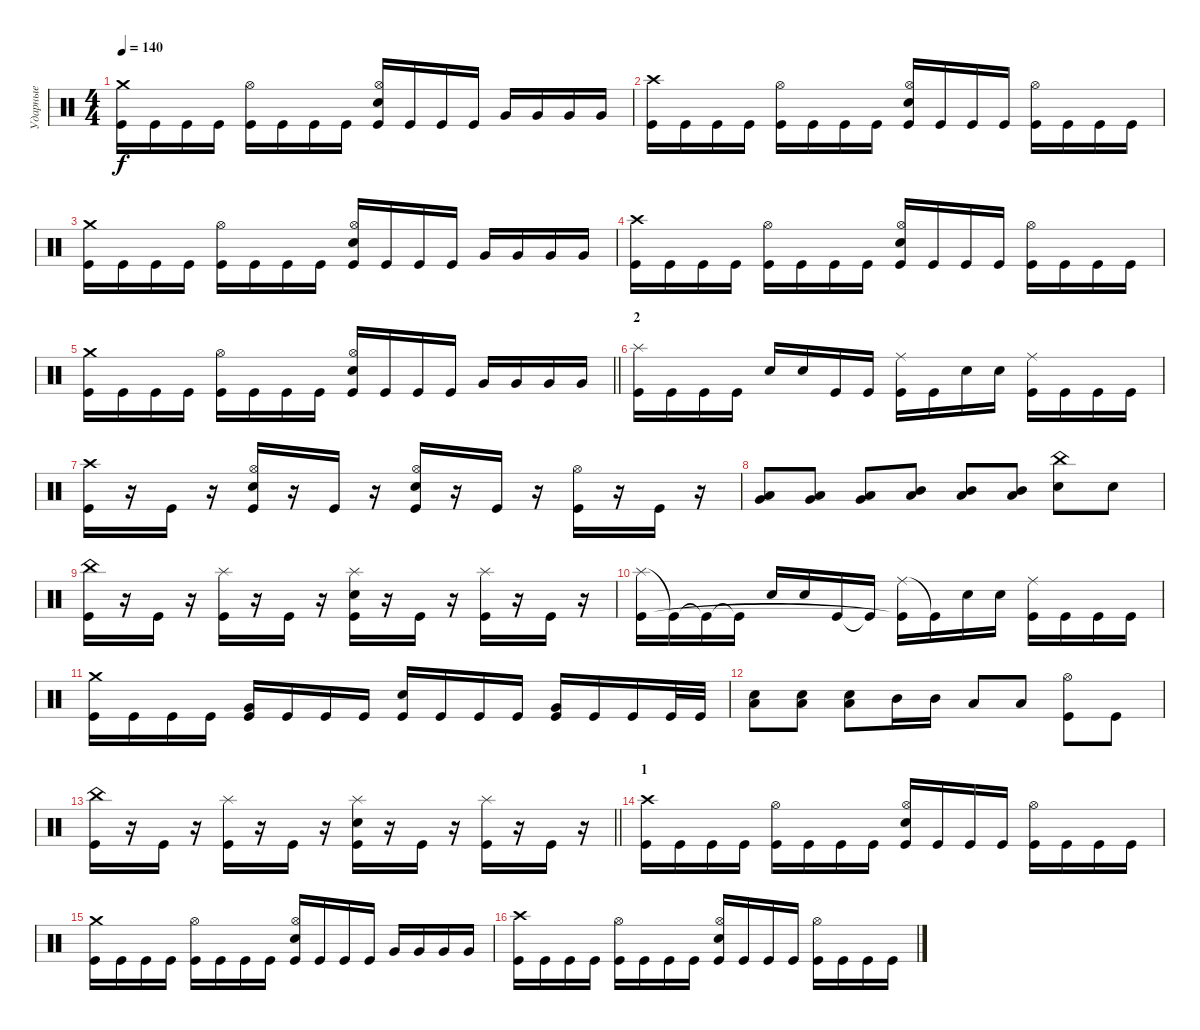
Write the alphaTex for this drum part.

\track ("Ударные" "Ударные") {instrument percussion}
\staff {score}
\articulation defaults
\ts (4 4)
\tempo 140
\clef neutral
\ks c
("Crash medium (hit)" "Kick (hit)").16{dy f} "Kick (hit)".16 "Kick (hit)".16 "Kick (hit)".16 ("Hi-Hat (open)" "Kick (hit)").16 "Kick (hit)".16 "Kick (hit)".16 "Kick (hit)".16 ("Hi-Hat (open)" "Electric Snare (hit)" "Kick (hit)").16 "Kick (hit)".16 "Kick (hit)".16 "Kick (hit)".16 "Very Low Tom (hit)".16 "Very Low Tom (hit)".16 "Very Low Tom (hit)".16 "Very Low Tom (hit)".16 |
("Crash high (hit)" "Kick (hit)").16 "Kick (hit)".16 "Kick (hit)".16 "Kick (hit)".16 ("Hi-Hat (open)" "Kick (hit)").16 "Kick (hit)".16 "Kick (hit)".16 "Kick (hit)".16 ("Hi-Hat (open)" "Electric Snare (hit)" "Kick (hit)").16 "Kick (hit)".16 "Kick (hit)".16 "Kick (hit)".16 ("Hi-Hat (open)" "Kick (hit)").16 "Kick (hit)".16 "Kick (hit)".16 "Kick (hit)".16 |
("Crash medium (hit)" "Kick (hit)").16 "Kick (hit)".16 "Kick (hit)".16 "Kick (hit)".16 ("Hi-Hat (open)" "Kick (hit)").16 "Kick (hit)".16 "Kick (hit)".16 "Kick (hit)".16 ("Hi-Hat (open)" "Electric Snare (hit)" "Kick (hit)").16 "Kick (hit)".16 "Kick (hit)".16 "Kick (hit)".16 "Very Low Tom (hit)".16 "Very Low Tom (hit)".16 "Very Low Tom (hit)".16 "Very Low Tom (hit)".16 |
("Crash high (hit)" "Kick (hit)").16 "Kick (hit)".16 "Kick (hit)".16 "Kick (hit)".16 ("Hi-Hat (open)" "Kick (hit)").16 "Kick (hit)".16 "Kick (hit)".16 "Kick (hit)".16 ("Hi-Hat (open)" "Electric Snare (hit)" "Kick (hit)").16 "Kick (hit)".16 "Kick (hit)".16 "Kick (hit)".16 ("Hi-Hat (open)" "Kick (hit)").16 "Kick (hit)".16 "Kick (hit)".16 "Kick (hit)".16 |
\barLineRight lightlight
("Crash medium (hit)" "Kick (hit)").16 "Kick (hit)".16 "Kick (hit)".16 "Kick (hit)".16 ("Hi-Hat (open)" "Kick (hit)").16 "Kick (hit)".16 "Kick (hit)".16 "Kick (hit)".16 ("Hi-Hat (open)" "Electric Snare (hit)" "Kick (hit)").16 "Kick (hit)".16 "Kick (hit)".16 "Kick (hit)".16 "Very Low Tom (hit)".16 "Very Low Tom (hit)".16 "Very Low Tom (hit)".16 "Very Low Tom (hit)".16 |
\section ("" "2")
("Splash (hit)" "Kick (hit)").16 "Kick (hit)".16 "Kick (hit)".16 "Kick (hit)".16 "Electric Snare (hit)".16 "Electric Snare (hit)".16 "Kick (hit)".16 "Kick (hit)".16 ("Ride (middle)" "Kick (hit)").16 "Kick (hit)".16 "Electric Snare (hit)".16 "Electric Snare (hit)".16 ("Ride (middle)" "Kick (hit)").16 "Kick (hit)".16 "Kick (hit)".16 "Kick (hit)".16 |
("Crash high (hit)" "Kick (hit)").16 r.16 "Kick (hit)".16 r.16 ("Hi-Hat (open)" "Electric Snare (hit)" "Kick (hit)").16 r.16 "Kick (hit)".16 r.16 ("Hi-Hat (open)" "Electric Snare (hit)" "Kick (hit)").16 r.16 "Kick (hit)".16 r.16 ("Hi-Hat (open)" "Kick (hit)").16 r.16 "Kick (hit)".16 r.16 |
("Very Low Tom (hit)" "Low Tom (hit)").8 ("Very Low Tom (hit)" "Low Tom (hit)").8 ("Very Low Tom (hit)" "Low Tom (hit)").8 ("Mid Tom (hit)" "Low Tom (hit)").8 ("Mid Tom (hit)" "Low Tom (hit)").8 ("Mid Tom (hit)" "Low Tom (hit)").8 ("China (hit)" "Electric Snare (hit)").8 "Electric Snare (hit)".8 |
("China (hit)" "Kick (hit)").16 r.16 "Kick (hit)".16 r.16 ("Splash (hit)" "Kick (hit)").16 r.16 "Kick (hit)".16 r.16 ("Splash (hit)" "Electric Snare (hit)" "Kick (hit)").16 r.16 "Kick (hit)".16 r.16 ("Splash (hit)" "Kick (hit)").16 r.16 "Kick (hit)".16 r.16 |
("Splash (hit)" "Kick (hit)").16 "Kick (hit)"{t}.16 "Kick (hit)"{t}.16 "Kick (hit)"{t}.16 "Electric Snare (hit)".16 "Electric Snare (hit)".16 "Kick (hit)".16 "Kick (hit)"{t}.16 ("Ride (middle)" "Kick (hit)"{t}).16 "Kick (hit)"{t}.16 "Electric Snare (hit)".16 "Electric Snare (hit)".16 ("Ride (middle)" "Kick (hit)").16 "Kick (hit)".16 "Kick (hit)".16 "Kick (hit)".16 |
("Crash medium (hit)" "Kick (hit)").16 "Kick (hit)".16 "Kick (hit)".16 "Kick (hit)".16 ("Very Low Tom (hit)" "Kick (hit)").16 "Kick (hit)".16 "Kick (hit)".16 "Kick (hit)".16 ("Electric Snare (hit)" "Kick (hit)").16 "Kick (hit)".16 "Kick (hit)".16 "Kick (hit)".16 ("Very Low Tom (hit)" "Kick (hit)").16 "Kick (hit)".16 "Kick (hit)".16 "Kick (hit)".32 "Kick (hit)".32 |
("Low Floor Tom (hit)" "Electric Snare (hit)").8 ("Low Floor Tom (hit)" "Electric Snare (hit)").8 ("Low Floor Tom (hit)" "Electric Snare (hit)").8 "Mid Tom (hit)".16 "Mid Tom (hit)".16 "Low Tom (hit)".8 "Low Tom (hit)".8 ("Hi-Hat (open)" "Kick (hit)").8 "Kick (hit)".8 |
\barLineRight lightlight
("China (hit)" "Kick (hit)").16 r.16 "Kick (hit)".16 r.16 ("Splash (hit)" "Kick (hit)").16 r.16 "Kick (hit)".16 r.16 ("Splash (hit)" "Electric Snare (hit)" "Kick (hit)").16 r.16 "Kick (hit)".16 r.16 ("Splash (hit)" "Kick (hit)").16 r.16 "Kick (hit)".16 r.16 |
\section ("" "1")
("Crash high (hit)" "Kick (hit)").16 "Kick (hit)".16 "Kick (hit)".16 "Kick (hit)".16 ("Hi-Hat (open)" "Kick (hit)").16 "Kick (hit)".16 "Kick (hit)".16 "Kick (hit)".16 ("Hi-Hat (open)" "Electric Snare (hit)" "Kick (hit)").16 "Kick (hit)".16 "Kick (hit)".16 "Kick (hit)".16 ("Hi-Hat (open)" "Kick (hit)").16 "Kick (hit)".16 "Kick (hit)".16 "Kick (hit)".16 |
("Crash medium (hit)" "Kick (hit)").16 "Kick (hit)".16 "Kick (hit)".16 "Kick (hit)".16 ("Hi-Hat (open)" "Kick (hit)").16 "Kick (hit)".16 "Kick (hit)".16 "Kick (hit)".16 ("Hi-Hat (open)" "Electric Snare (hit)" "Kick (hit)").16 "Kick (hit)".16 "Kick (hit)".16 "Kick (hit)".16 "Very Low Tom (hit)".16 "Very Low Tom (hit)".16 "Very Low Tom (hit)".16 "Very Low Tom (hit)".16 |
("Crash high (hit)" "Kick (hit)").16 "Kick (hit)".16 "Kick (hit)".16 "Kick (hit)".16 ("Hi-Hat (open)" "Kick (hit)").16 "Kick (hit)".16 "Kick (hit)".16 "Kick (hit)".16 ("Hi-Hat (open)" "Electric Snare (hit)" "Kick (hit)").16 "Kick (hit)".16 "Kick (hit)".16 "Kick (hit)".16 ("Hi-Hat (open)" "Kick (hit)").16 "Kick (hit)".16 "Kick (hit)".16 "Kick (hit)".16
